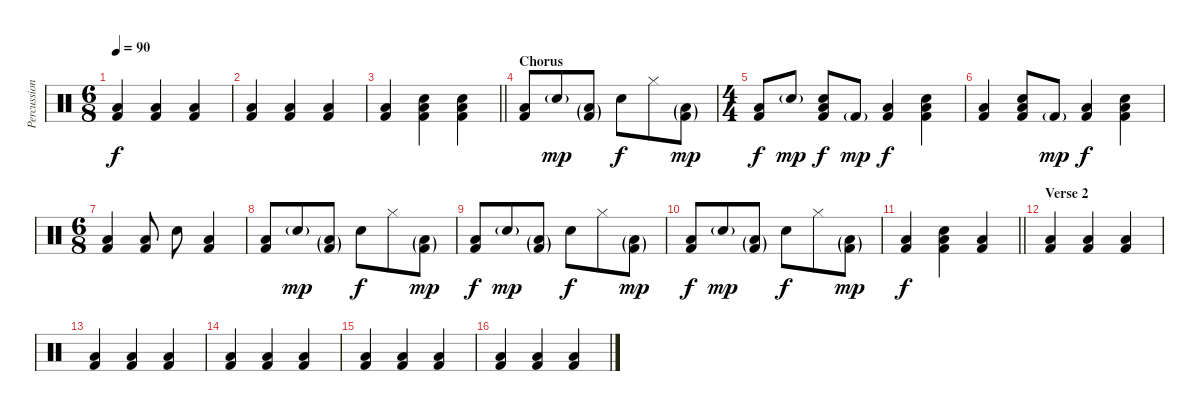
\track ("Percussion" "Percussion") {instrument percussion}
\staff {score}
\articulation defaults
\ts (6 8)
\tempo 90
\clef neutral
\ks c
("Low Floor Tom (hit)" "Kick (hit) 2").4{dy f} ("Low Floor Tom (hit)" "Kick (hit) 2").4 ("Low Floor Tom (hit)" "Kick (hit) 2").4 |
("Low Floor Tom (hit)" "Kick (hit) 2").4 ("Low Floor Tom (hit)" "Kick (hit) 2").4 ("Low Floor Tom (hit)" "Kick (hit) 2").4 |
\barLineRight lightlight
("Low Floor Tom (hit)" "Kick (hit) 2").4 ("Snare (hit) 2" "Low Floor Tom (hit)" "Kick (hit) 2").4 ("Snare (hit) 2" "Low Floor Tom (hit)" "Kick (hit) 2").4 |
\section ("" "Chorus")
("Low Floor Tom (hit)" "Kick (hit) 2").8 "Snare (hit) 2"{g}.8{dy mp} ("Low Floor Tom (hit)"{g} "Kick (hit) 2"{g}).8 "Snare (hit) 2".8{dy f} "Hi-Hat (closed)".8 ("Low Floor Tom (hit)"{g} "Kick (hit) 2"{g}).8{dy mp} |
\ts (4 4)
("Low Floor Tom (hit)" "Kick (hit) 2").8{dy f} "Snare (hit) 2"{g}.8{dy mp} ("Snare (hit) 2" "Low Floor Tom (hit)" "Kick (hit) 2").8{dy f} "Kick (hit) 2"{g}.8{dy mp} ("Low Floor Tom (hit)" "Kick (hit) 2").4{dy f} ("Snare (hit) 2" "Low Floor Tom (hit)" "Kick (hit) 2").4 |
("Low Floor Tom (hit)" "Kick (hit) 2").4 ("Snare (hit) 2" "Low Floor Tom (hit)" "Kick (hit) 2").8 "Kick (hit) 2"{g}.8{dy mp} ("Low Floor Tom (hit)" "Kick (hit) 2").4{dy f} ("Snare (hit) 2" "Low Floor Tom (hit)" "Kick (hit) 2").4 |
\ts (6 8)
("Low Floor Tom (hit)" "Kick (hit) 2").4 ("Low Floor Tom (hit)" "Kick (hit) 2").8 "Snare (hit) 2".8 ("Low Floor Tom (hit)" "Kick (hit) 2").4 |
("Low Floor Tom (hit)" "Kick (hit) 2").8 "Snare (hit) 2"{g}.8{dy mp} ("Low Floor Tom (hit)"{g} "Kick (hit) 2"{g}).8 "Snare (hit) 2".8{dy f} "Hi-Hat (closed)".8 ("Low Floor Tom (hit)"{g} "Kick (hit) 2"{g}).8{dy mp} |
("Low Floor Tom (hit)" "Kick (hit) 2").8{dy f} "Snare (hit) 2"{g}.8{dy mp} ("Low Floor Tom (hit)"{g} "Kick (hit) 2"{g}).8 "Snare (hit) 2".8{dy f} "Hi-Hat (closed)".8 ("Low Floor Tom (hit)"{g} "Kick (hit) 2"{g}).8{dy mp} |
("Low Floor Tom (hit)" "Kick (hit) 2").8{dy f} "Snare (hit) 2"{g}.8{dy mp} ("Low Floor Tom (hit)"{g} "Kick (hit) 2"{g}).8 "Snare (hit) 2".8{dy f} "Hi-Hat (closed)".8 ("Low Floor Tom (hit)"{g} "Kick (hit) 2"{g}).8{dy mp} |
\barLineRight lightlight
("Low Floor Tom (hit)" "Kick (hit) 2").4{dy f} ("Snare (hit) 2" "Low Floor Tom (hit)" "Kick (hit) 2").4 ("Low Floor Tom (hit)" "Kick (hit) 2").4 |
\section ("" "Verse 2")
("Low Floor Tom (hit)" "Kick (hit) 2").4 ("Low Floor Tom (hit)" "Kick (hit) 2").4 ("Low Floor Tom (hit)" "Kick (hit) 2").4 |
("Low Floor Tom (hit)" "Kick (hit) 2").4 ("Low Floor Tom (hit)" "Kick (hit) 2").4 ("Low Floor Tom (hit)" "Kick (hit) 2").4 |
("Low Floor Tom (hit)" "Kick (hit) 2").4 ("Low Floor Tom (hit)" "Kick (hit) 2").4 ("Low Floor Tom (hit)" "Kick (hit) 2").4 |
("Low Floor Tom (hit)" "Kick (hit) 2").4 ("Low Floor Tom (hit)" "Kick (hit) 2").4 ("Low Floor Tom (hit)" "Kick (hit) 2").4 |
("Low Floor Tom (hit)" "Kick (hit) 2").4 ("Low Floor Tom (hit)" "Kick (hit) 2").4 ("Low Floor Tom (hit)" "Kick (hit) 2").4
